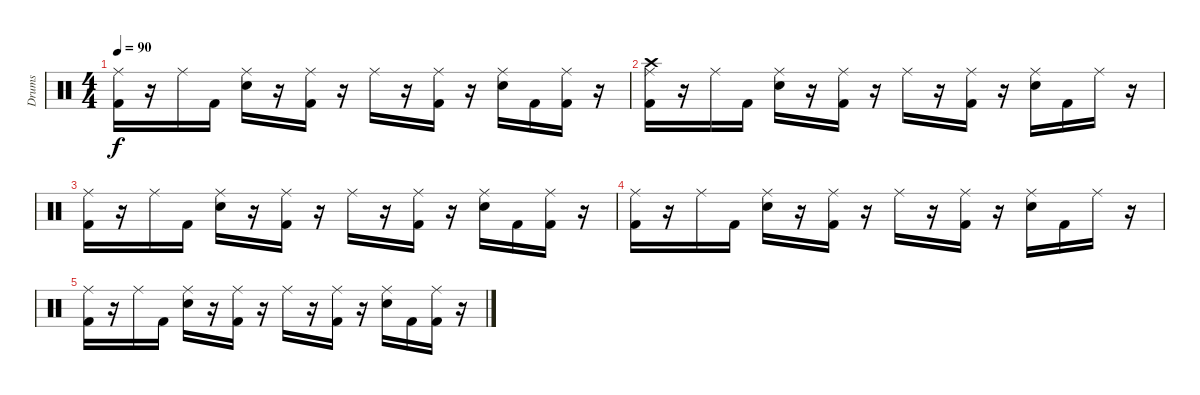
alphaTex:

\track ("Drums" "Drums") {instrument percussion}
\staff {score}
\articulation defaults
\ts (4 4)
\tempo 90
\clef neutral
\ks c
("Ride (middle)" "Kick (hit) 2").16{dy f} r.16 "Ride (middle)".16 "Kick (hit) 2".16 ("Ride (middle)" "Electric Snare (hit)").16 r.16 ("Ride (middle)" "Kick (hit) 2").16 r.16 "Ride (middle)".16 r.16 ("Ride (middle)" "Kick (hit) 2").16 r.16 ("Ride (middle)" "Electric Snare (hit)").16 "Kick (hit) 2".16 ("Ride (middle)" "Kick (hit) 2").16 r.16 |
("Crash high (hit)" "Ride (middle)" "Kick (hit) 2").16 r.16 "Ride (middle)".16 "Kick (hit) 2".16 ("Ride (middle)" "Electric Snare (hit)").16 r.16 ("Ride (middle)" "Kick (hit) 2").16 r.16 "Ride (middle)".16 r.16 ("Ride (middle)" "Kick (hit) 2").16 r.16 ("Ride (middle)" "Electric Snare (hit)").16 "Kick (hit) 2".16 "Ride (middle)".16 r.16 |
("Ride (middle)" "Kick (hit) 2").16 r.16 "Ride (middle)".16 "Kick (hit) 2".16 ("Ride (middle)" "Electric Snare (hit)").16 r.16 ("Ride (middle)" "Kick (hit) 2").16 r.16 "Ride (middle)".16 r.16 ("Ride (middle)" "Kick (hit) 2").16 r.16 ("Ride (middle)" "Electric Snare (hit)").16 "Kick (hit) 2".16 ("Ride (middle)" "Kick (hit) 2").16 r.16 |
("Ride (middle)" "Kick (hit) 2").16 r.16 "Ride (middle)".16 "Kick (hit) 2".16 ("Ride (middle)" "Electric Snare (hit)").16 r.16 ("Ride (middle)" "Kick (hit) 2").16 r.16 "Ride (middle)".16 r.16 ("Ride (middle)" "Kick (hit) 2").16 r.16 ("Ride (middle)" "Electric Snare (hit)").16 "Kick (hit) 2".16 "Ride (middle)".16 r.16 |
("Ride (middle)" "Kick (hit) 2").16 r.16 "Ride (middle)".16 "Kick (hit) 2".16 ("Ride (middle)" "Electric Snare (hit)").16 r.16 ("Ride (middle)" "Kick (hit) 2").16 r.16 "Ride (middle)".16 r.16 ("Ride (middle)" "Kick (hit) 2").16 r.16 ("Ride (middle)" "Electric Snare (hit)").16 "Kick (hit) 2".16 ("Ride (middle)" "Kick (hit) 2").16 r.16
